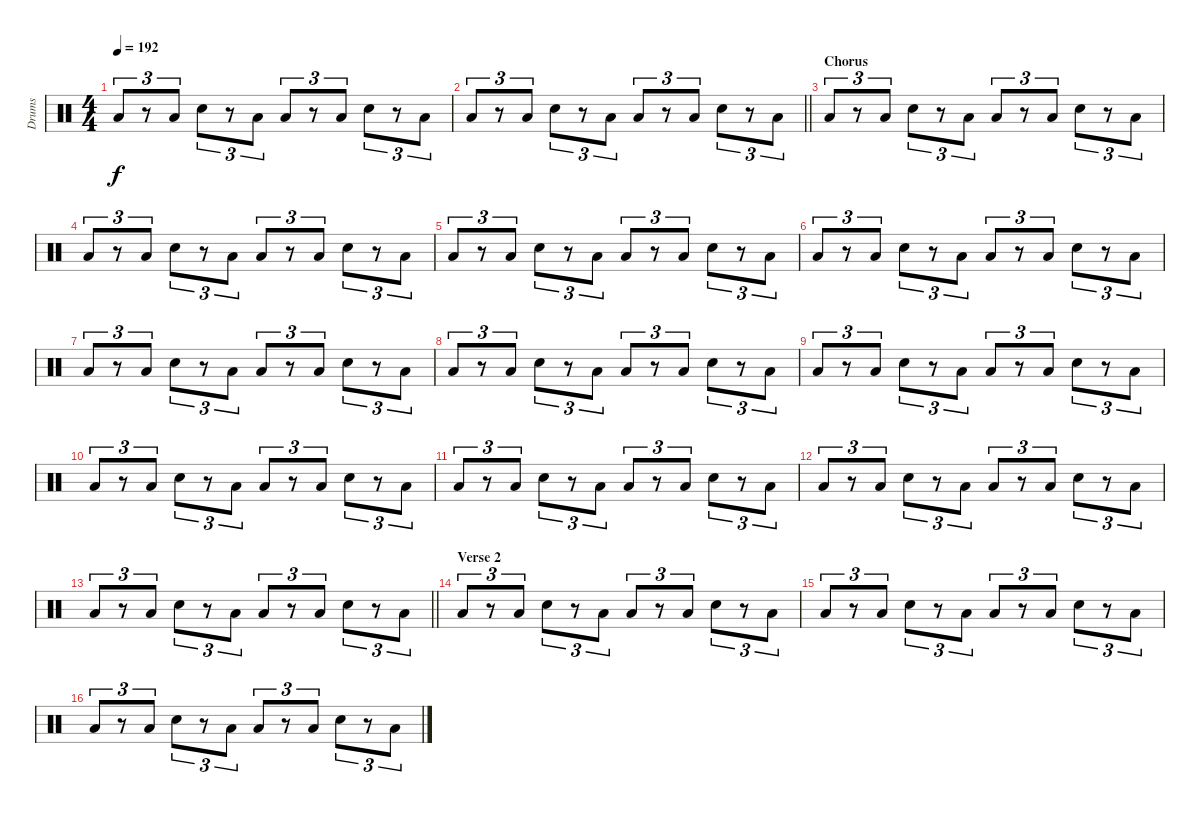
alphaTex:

\track ("Drums" "Drums") {instrument percussion}
\staff {score}
\articulation defaults
\ts (4 4)
\tempo 192
\clef neutral
\ks c "Low Floor Tom (hit)".8{tu (3 2) dy f}
r.8{tu (3 2)} "Low Tom (hit)".8{tu (3 2)} "Snare (hit) 2".8{tu (3 2)} r.8{tu (3 2)} "Low Tom (hit)".8{tu (3 2)} "Low Floor Tom (hit)".8{tu (3 2)} r.8{tu (3 2)} "Low Tom (hit)".8{tu (3 2)} "Snare (hit) 2".8{tu (3 2)} r.8{tu (3 2)} "Low Tom (hit)".8{tu (3 2)} |
\barLineRight lightlight "Low Floor Tom (hit)".8{tu (3 2)}
r.8{tu (3 2)} "Low Tom (hit)".8{tu (3 2)} "Snare (hit) 2".8{tu (3 2)} r.8{tu (3 2)} "Low Tom (hit)".8{tu (3 2)} "Low Floor Tom (hit)".8{tu (3 2)} r.8{tu (3 2)} "Low Tom (hit)".8{tu (3 2)} "Snare (hit) 2".8{tu (3 2)} r.8{tu (3 2)} "Low Tom (hit)".8{tu (3 2)} |
\section ("" "Chorus")
"Low Floor Tom (hit)".8{tu (3 2)} r.8{tu (3 2)} "Low Tom (hit)".8{tu (3 2)} "Snare (hit) 2".8{tu (3 2)} r.8{tu (3 2)} "Low Tom (hit)".8{tu (3 2)} "Low Floor Tom (hit)".8{tu (3 2)} r.8{tu (3 2)} "Low Tom (hit)".8{tu (3 2)} "Snare (hit) 2".8{tu (3 2)} r.8{tu (3 2)} "Low Tom (hit)".8{tu (3 2)} |
"Low Floor Tom (hit)".8{tu (3 2)} r.8{tu (3 2)} "Low Tom (hit)".8{tu (3 2)} "Snare (hit) 2".8{tu (3 2)} r.8{tu (3 2)} "Low Tom (hit)".8{tu (3 2)} "Low Floor Tom (hit)".8{tu (3 2)} r.8{tu (3 2)} "Low Tom (hit)".8{tu (3 2)} "Snare (hit) 2".8{tu (3 2)} r.8{tu (3 2)} "Low Tom (hit)".8{tu (3 2)} |
"Low Floor Tom (hit)".8{tu (3 2)} r.8{tu (3 2)} "Low Tom (hit)".8{tu (3 2)} "Snare (hit) 2".8{tu (3 2)} r.8{tu (3 2)} "Low Tom (hit)".8{tu (3 2)} "Low Floor Tom (hit)".8{tu (3 2)} r.8{tu (3 2)} "Low Tom (hit)".8{tu (3 2)} "Snare (hit) 2".8{tu (3 2)} r.8{tu (3 2)} "Low Tom (hit)".8{tu (3 2)} |
"Low Floor Tom (hit)".8{tu (3 2)} r.8{tu (3 2)} "Low Tom (hit)".8{tu (3 2)} "Snare (hit) 2".8{tu (3 2)} r.8{tu (3 2)} "Low Tom (hit)".8{tu (3 2)} "Low Floor Tom (hit)".8{tu (3 2)} r.8{tu (3 2)} "Low Tom (hit)".8{tu (3 2)} "Snare (hit) 2".8{tu (3 2)} r.8{tu (3 2)} "Low Tom (hit)".8{tu (3 2)} |
"Low Floor Tom (hit)".8{tu (3 2)} r.8{tu (3 2)} "Low Tom (hit)".8{tu (3 2)} "Snare (hit) 2".8{tu (3 2)} r.8{tu (3 2)} "Low Tom (hit)".8{tu (3 2)} "Low Floor Tom (hit)".8{tu (3 2)} r.8{tu (3 2)} "Low Tom (hit)".8{tu (3 2)} "Snare (hit) 2".8{tu (3 2)} r.8{tu (3 2)} "Low Tom (hit)".8{tu (3 2)} |
"Low Floor Tom (hit)".8{tu (3 2)} r.8{tu (3 2)} "Low Tom (hit)".8{tu (3 2)} "Snare (hit) 2".8{tu (3 2)} r.8{tu (3 2)} "Low Tom (hit)".8{tu (3 2)} "Low Floor Tom (hit)".8{tu (3 2)} r.8{tu (3 2)} "Low Tom (hit)".8{tu (3 2)} "Snare (hit) 2".8{tu (3 2)} r.8{tu (3 2)} "Low Tom (hit)".8{tu (3 2)} |
"Low Floor Tom (hit)".8{tu (3 2)} r.8{tu (3 2)} "Low Tom (hit)".8{tu (3 2)} "Snare (hit) 2".8{tu (3 2)} r.8{tu (3 2)} "Low Tom (hit)".8{tu (3 2)} "Low Floor Tom (hit)".8{tu (3 2)} r.8{tu (3 2)} "Low Tom (hit)".8{tu (3 2)} "Snare (hit) 2".8{tu (3 2)} r.8{tu (3 2)} "Low Tom (hit)".8{tu (3 2)} |
"Low Floor Tom (hit)".8{tu (3 2)} r.8{tu (3 2)} "Low Tom (hit)".8{tu (3 2)} "Snare (hit) 2".8{tu (3 2)} r.8{tu (3 2)} "Low Tom (hit)".8{tu (3 2)} "Low Floor Tom (hit)".8{tu (3 2)} r.8{tu (3 2)} "Low Tom (hit)".8{tu (3 2)} "Snare (hit) 2".8{tu (3 2)} r.8{tu (3 2)} "Low Tom (hit)".8{tu (3 2)} |
"Low Floor Tom (hit)".8{tu (3 2)} r.8{tu (3 2)} "Low Tom (hit)".8{tu (3 2)} "Snare (hit) 2".8{tu (3 2)} r.8{tu (3 2)} "Low Tom (hit)".8{tu (3 2)} "Low Floor Tom (hit)".8{tu (3 2)} r.8{tu (3 2)} "Low Tom (hit)".8{tu (3 2)} "Snare (hit) 2".8{tu (3 2)} r.8{tu (3 2)} "Low Tom (hit)".8{tu (3 2)} |
"Low Floor Tom (hit)".8{tu (3 2)} r.8{tu (3 2)} "Low Tom (hit)".8{tu (3 2)} "Snare (hit) 2".8{tu (3 2)} r.8{tu (3 2)} "Low Tom (hit)".8{tu (3 2)} "Low Floor Tom (hit)".8{tu (3 2)} r.8{tu (3 2)} "Low Tom (hit)".8{tu (3 2)} "Snare (hit) 2".8{tu (3 2)} r.8{tu (3 2)} "Low Tom (hit)".8{tu (3 2)} |
\barLineRight lightlight "Low Floor Tom (hit)".8{tu (3 2)}
r.8{tu (3 2)} "Low Tom (hit)".8{tu (3 2)} "Snare (hit) 2".8{tu (3 2)} r.8{tu (3 2)} "Low Tom (hit)".8{tu (3 2)} "Low Floor Tom (hit)".8{tu (3 2)} r.8{tu (3 2)} "Low Tom (hit)".8{tu (3 2)} "Snare (hit) 2".8{tu (3 2)} r.8{tu (3 2)} "Low Tom (hit)".8{tu (3 2)} |
\section ("" "Verse 2")
"Low Floor Tom (hit)".8{tu (3 2)} r.8{tu (3 2)} "Low Tom (hit)".8{tu (3 2)} "Snare (hit) 2".8{tu (3 2)} r.8{tu (3 2)} "Low Tom (hit)".8{tu (3 2)} "Low Floor Tom (hit)".8{tu (3 2)} r.8{tu (3 2)} "Low Tom (hit)".8{tu (3 2)} "Snare (hit) 2".8{tu (3 2)} r.8{tu (3 2)} "Low Tom (hit)".8{tu (3 2)} |
"Low Floor Tom (hit)".8{tu (3 2)} r.8{tu (3 2)} "Low Tom (hit)".8{tu (3 2)} "Snare (hit) 2".8{tu (3 2)} r.8{tu (3 2)} "Low Tom (hit)".8{tu (3 2)} "Low Floor Tom (hit)".8{tu (3 2)} r.8{tu (3 2)} "Low Tom (hit)".8{tu (3 2)} "Snare (hit) 2".8{tu (3 2)} r.8{tu (3 2)} "Low Tom (hit)".8{tu (3 2)} |
"Low Floor Tom (hit)".8{tu (3 2)} r.8{tu (3 2)} "Low Tom (hit)".8{tu (3 2)} "Snare (hit) 2".8{tu (3 2)} r.8{tu (3 2)} "Low Tom (hit)".8{tu (3 2)} "Low Floor Tom (hit)".8{tu (3 2)} r.8{tu (3 2)} "Low Tom (hit)".8{tu (3 2)} "Snare (hit) 2".8{tu (3 2)} r.8{tu (3 2)} "Low Tom (hit)".8{tu (3 2)}
